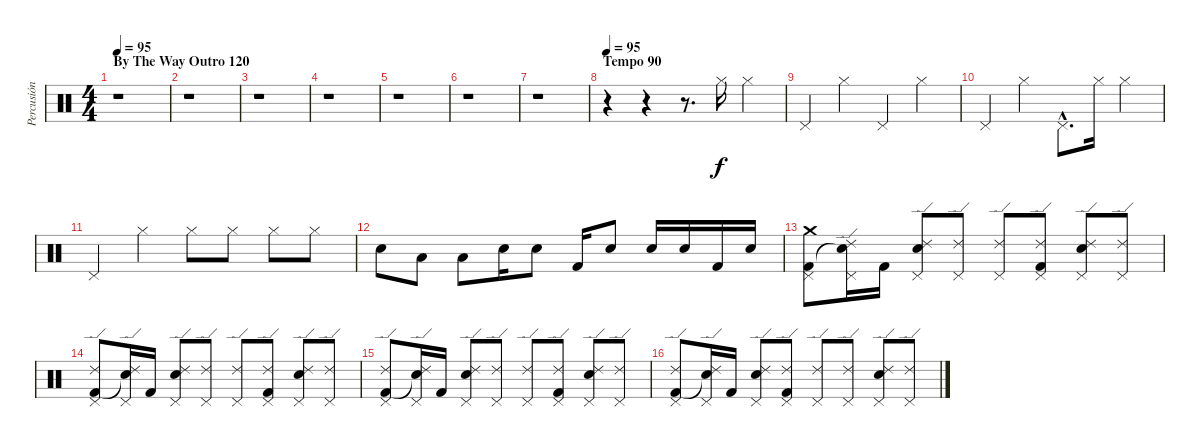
\track ("Percusión" "Percusión") {instrument percussion}
\staff {score}
\articulation defaults
\ts (4 4)
\section ("" "By The Way Outro 120")
\tempo 95
\tempo 120
\tempo 95
\clef neutral
\ks c
r.1{dy f} |
r.1 |
r.1 |
r.1 |
r.1 |
r.1 |
r.1 |
\section ("" "Tempo 90")
\tempo 95
r.4 r.4 r.8{d} "Hi-Hat (closed)".16 "Hi-Hat (closed)".4 |
"Pedal Hi-Hat (hit)".4 "Hi-Hat (closed)".4 "Pedal Hi-Hat (hit)".4 "Hi-Hat (closed)".4 |
"Pedal Hi-Hat (hit)".4 "Hi-Hat (closed)".4 "Pedal Hi-Hat (hit)"{hac}.8{d} "Hi-Hat (closed)".16 "Hi-Hat (closed)".4 |
"Pedal Hi-Hat (hit)".4 "Hi-Hat (closed)".4 "Hi-Hat (closed)".8 "Hi-Hat (closed)".8 "Hi-Hat (closed)".8 "Hi-Hat (closed)".8 |
"Electric Snare (hit)".8 "Low Tom (hit)".8 "Low Tom (hit)".8 "Electric Snare (hit)".16 "Electric Snare (hit)".8 "Kick (hit) 2".16 "Electric Snare (hit)".8 "Electric Snare (hit)".16 "Electric Snare (hit)".16 "Kick (hit) 2".16 "Electric Snare (hit)".16 |
("Crash medium (hit)" "Pedal Hi-Hat (hit)" "Kick (hit) 2").8 ("Ride (edge) 2" "Pedal Hi-Hat (hit)" "Snare (hit)"{t}).16 "Kick (hit) 2".16 ("Ride (edge) 2" "Pedal Hi-Hat (hit)" "Electric Snare (hit)").8 ("Ride (edge) 2" "Pedal Hi-Hat (hit)").8 ("Ride (edge) 2" "Pedal Hi-Hat (hit)").8 ("Ride (edge) 2" "Pedal Hi-Hat (hit)" "Kick (hit) 2").8 ("Ride (edge) 2" "Pedal Hi-Hat (hit)" "Electric Snare (hit)").8 ("Ride (edge) 2" "Pedal Hi-Hat (hit)").8 |
("Ride (edge) 2" "Pedal Hi-Hat (hit)" "Kick (hit) 2").8 ("Ride (edge) 2" "Pedal Hi-Hat (hit)" "Snare (hit)"{t}).16 "Kick (hit) 2".16 ("Ride (edge) 2" "Pedal Hi-Hat (hit)" "Electric Snare (hit)").8 ("Ride (edge) 2" "Pedal Hi-Hat (hit)").8 ("Ride (edge) 2" "Pedal Hi-Hat (hit)").8 ("Ride (edge) 2" "Pedal Hi-Hat (hit)" "Kick (hit) 2").8 ("Ride (edge) 2" "Pedal Hi-Hat (hit)" "Electric Snare (hit)").8 ("Ride (edge) 2" "Pedal Hi-Hat (hit)").8 |
("Ride (edge) 2" "Pedal Hi-Hat (hit)" "Kick (hit) 2").8 ("Ride (edge) 2" "Pedal Hi-Hat (hit)" "Snare (hit)"{t}).16 "Kick (hit) 2".16 ("Ride (edge) 2" "Pedal Hi-Hat (hit)" "Electric Snare (hit)").8 ("Ride (edge) 2" "Pedal Hi-Hat (hit)").8 ("Ride (edge) 2" "Pedal Hi-Hat (hit)").8 ("Ride (edge) 2" "Pedal Hi-Hat (hit)" "Kick (hit) 2").8 ("Ride (edge) 2" "Pedal Hi-Hat (hit)" "Electric Snare (hit)").8 ("Ride (edge) 2" "Pedal Hi-Hat (hit)").8 |
("Ride (edge) 2" "Pedal Hi-Hat (hit)" "Kick (hit) 2").8 ("Ride (edge) 2" "Pedal Hi-Hat (hit)" "Snare (hit)"{t}).16 "Kick (hit) 2".16 ("Ride (edge) 2" "Pedal Hi-Hat (hit)" "Electric Snare (hit)").8 ("Ride (edge) 2" "Pedal Hi-Hat (hit)" "Kick (hit) 2").8 ("Ride (edge) 2" "Pedal Hi-Hat (hit)").8 ("Ride (edge) 2" "Pedal Hi-Hat (hit)").8 ("Ride (edge) 2" "Pedal Hi-Hat (hit)" "Electric Snare (hit)").8 ("Ride (edge) 2" "Pedal Hi-Hat (hit)").8
